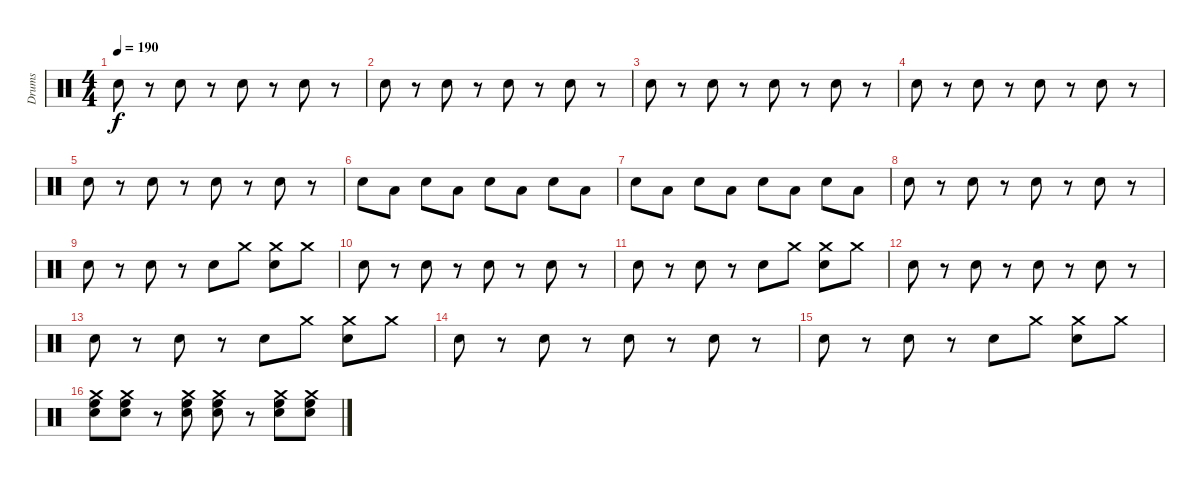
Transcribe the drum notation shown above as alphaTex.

\track ("Drums" "Drums") {instrument percussion}
\staff {score}
\articulation defaults
\ts (4 4)
\tempo 190
\clef neutral
\ks c "Electric Snare (hit)".8{dy f}
r.8 "Electric Snare (hit)".8 r.8 "Electric Snare (hit)".8 r.8 "Electric Snare (hit)".8 r.8 |
"Electric Snare (hit)".8 r.8 "Electric Snare (hit)".8 r.8 "Electric Snare (hit)".8 r.8 "Electric Snare (hit)".8 r.8 |
"Electric Snare (hit)".8 r.8 "Electric Snare (hit)".8 r.8 "Electric Snare (hit)".8 r.8 "Electric Snare (hit)".8 r.8 |
"Electric Snare (hit)".8 r.8 "Electric Snare (hit)".8 r.8 "Electric Snare (hit)".8 r.8 "Electric Snare (hit)".8 r.8 |
"Electric Snare (hit)".8 r.8 "Electric Snare (hit)".8 r.8 "Electric Snare (hit)".8 r.8 "Electric Snare (hit)".8 r.8 |
"Electric Snare (hit)".8 "Low Tom (hit)".8 "Electric Snare (hit)".8 "Low Tom (hit)".8 "Electric Snare (hit)".8 "Low Tom (hit)".8 "Electric Snare (hit)".8 "Low Tom (hit)".8 |
"Electric Snare (hit)".8 "Low Tom (hit)".8 "Electric Snare (hit)".8 "Low Tom (hit)".8 "Electric Snare (hit)".8 "Low Tom (hit)".8 "Electric Snare (hit)".8 "Low Tom (hit)".8 |
"Electric Snare (hit)".8 r.8 "Electric Snare (hit)".8 r.8 "Electric Snare (hit)".8 r.8 "Electric Snare (hit)".8 r.8 |
"Electric Snare (hit)".8 r.8 "Electric Snare (hit)".8 r.8 "Electric Snare (hit)".8 "Crash medium (hit)".8 ("Crash medium (hit)" "Electric Snare (hit)").8 "Crash medium (hit)".8 |
"Electric Snare (hit)".8 r.8 "Electric Snare (hit)".8 r.8 "Electric Snare (hit)".8 r.8 "Electric Snare (hit)".8 r.8 |
"Electric Snare (hit)".8 r.8 "Electric Snare (hit)".8 r.8 "Electric Snare (hit)".8 "Crash medium (hit)".8 ("Crash medium (hit)" "Electric Snare (hit)").8 "Crash medium (hit)".8 |
"Electric Snare (hit)".8 r.8 "Electric Snare (hit)".8 r.8 "Electric Snare (hit)".8 r.8 "Electric Snare (hit)".8 r.8 |
"Electric Snare (hit)".8 r.8 "Electric Snare (hit)".8 r.8 "Electric Snare (hit)".8 "Crash medium (hit)".8 ("Crash medium (hit)" "Electric Snare (hit)").8 "Crash medium (hit)".8 |
"Electric Snare (hit)".8 r.8 "Electric Snare (hit)".8 r.8 "Electric Snare (hit)".8 r.8 "Electric Snare (hit)".8 r.8 |
"Electric Snare (hit)".8 r.8 "Electric Snare (hit)".8 r.8 "Electric Snare (hit)".8 "Crash medium (hit)".8 ("Crash medium (hit)" "Electric Snare (hit)").8 "Crash medium (hit)".8 |
("Crash medium (hit)" "High Floor Tom (hit)" "Electric Snare (hit)").8 ("Crash medium (hit)" "High Floor Tom (hit)" "Electric Snare (hit)").8 r.8 ("Electric Snare (hit)" "High Floor Tom (hit)" "Crash medium (hit)").8 ("Electric Snare (hit)" "High Floor Tom (hit)" "Crash medium (hit)").8 r.8 ("Electric Snare (hit)" "Crash medium (hit)" "High Floor Tom (hit)").8 ("Electric Snare (hit)" "Crash medium (hit)" "High Floor Tom (hit)").8
